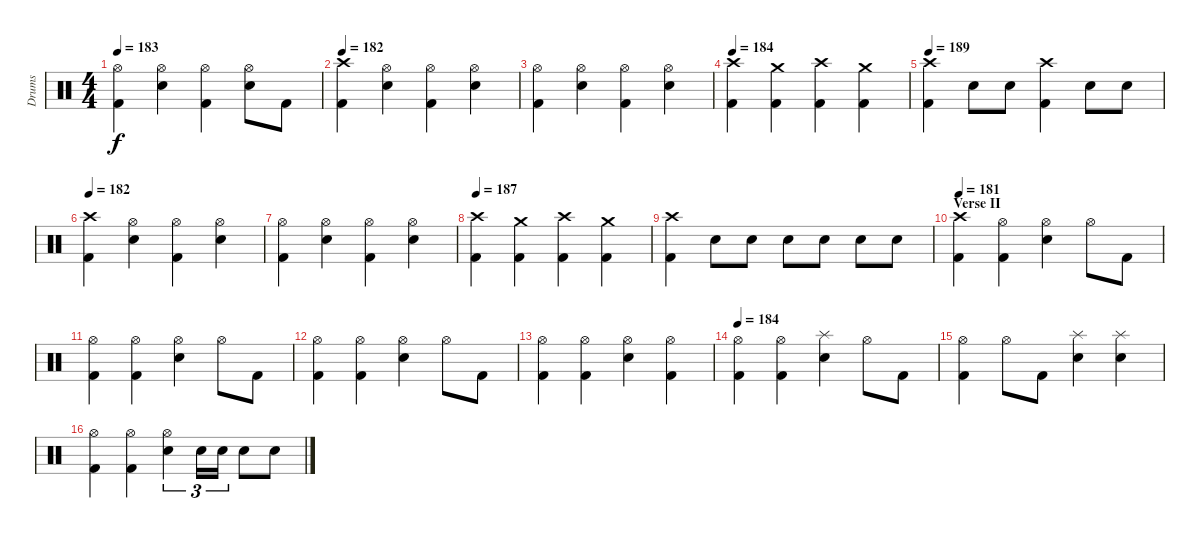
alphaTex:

\track ("Drums" "Drums") {instrument percussion}
\staff {score}
\articulation defaults
\ts (4 4)
\tempo 183
\clef neutral
\ks c
("Hi-Hat (open)" "Kick (hit) 2").4{dy f} ("Hi-Hat (open)" "Snare (hit) 2").4 ("Hi-Hat (open)" "Kick (hit) 2").4 ("Hi-Hat (open)" "Snare (hit) 2").8 "Kick (hit) 2".8 |
\tempo 182
("Crash high (hit)" "Kick (hit) 2").4 ("Hi-Hat (open)" "Snare (hit) 2").4 ("Hi-Hat (open)" "Kick (hit) 2").4 ("Hi-Hat (open)" "Snare (hit) 2").4 |
("Hi-Hat (open)" "Kick (hit) 2").4 ("Hi-Hat (open)" "Snare (hit) 2").4 ("Hi-Hat (open)" "Kick (hit) 2").4 ("Hi-Hat (open)" "Snare (hit) 2").4 |
\tempo 184
("Crash high (hit)" "Kick (hit) 2").4 ("Crash medium (hit)" "Kick (hit) 2").4 ("Crash high (hit)" "Kick (hit) 2").4 ("Crash medium (hit)" "Kick (hit) 2").4 |
\tempo 189
("Crash high (hit)" "Kick (hit) 2").4 "Snare (hit) 2".8 "Snare (hit) 2".8 ("Crash high (hit)" "Kick (hit) 2").4 "Snare (hit) 2".8 "Snare (hit) 2".8 |
\tempo 182
("Crash high (hit)" "Kick (hit) 2").4 ("Hi-Hat (open)" "Snare (hit) 2").4 ("Hi-Hat (open)" "Kick (hit) 2").4 ("Hi-Hat (open)" "Snare (hit) 2").4 |
("Hi-Hat (open)" "Kick (hit) 2").4 ("Hi-Hat (open)" "Snare (hit) 2").4 ("Hi-Hat (open)" "Kick (hit) 2").4 ("Hi-Hat (open)" "Snare (hit) 2").4 |
\tempo 187
("Crash high (hit)" "Kick (hit) 2").4 ("Crash medium (hit)" "Kick (hit) 2").4 ("Crash high (hit)" "Kick (hit) 2").4 ("Crash medium (hit)" "Kick (hit) 2").4 |
("Crash high (hit)" "Kick (hit) 2").4 "Snare (hit) 2".8 "Snare (hit) 2".8 "Snare (hit) 2".8 "Snare (hit) 2".8 "Snare (hit) 2".8 "Snare (hit) 2".8 |
\section ("" "Verse II")
\tempo 181
("Crash high (hit)" "Kick (hit) 2").4 ("Kick (hit) 2" "Hi-Hat (open)").4 ("Snare (hit) 2" "Hi-Hat (open)").4 "Hi-Hat (open)".8 "Kick (hit) 2".8 |
("Kick (hit) 2" "Hi-Hat (open)").4 ("Kick (hit) 2" "Hi-Hat (open)").4 ("Snare (hit) 2" "Hi-Hat (open)").4 "Hi-Hat (open)".8 "Kick (hit) 2".8 |
("Kick (hit) 2" "Hi-Hat (open)").4 ("Kick (hit) 2" "Hi-Hat (open)").4 ("Snare (hit) 2" "Hi-Hat (open)").4 "Hi-Hat (open)".8 "Kick (hit) 2".8 |
("Kick (hit) 2" "Hi-Hat (open)").4 ("Kick (hit) 2" "Hi-Hat (open)").4 ("Snare (hit) 2" "Hi-Hat (open)").4 ("Hi-Hat (open)" "Kick (hit) 2").4 |
\tempo 184
("Kick (hit) 2" "Hi-Hat (open)").4 ("Kick (hit) 2" "Hi-Hat (open)").4 ("Snare (hit) 2" "Splash (hit)").4 "Hi-Hat (open)".8 "Kick (hit) 2".8 |
("Kick (hit) 2" "Hi-Hat (open)").4 "Hi-Hat (open)".8 "Kick (hit) 2".8 ("Snare (hit) 2" "Splash (hit)").4 ("Snare (hit) 2" "Splash (hit)").4 |
("Kick (hit) 2" "Hi-Hat (open)").4 ("Kick (hit) 2" "Hi-Hat (open)").4 ("Snare (hit) 2" "Hi-Hat (open)").4{tu (3 2)} "Snare (hit) 2".16{tu (3 2)} "Snare (hit) 2".16{tu (3 2)} "Snare (hit) 2".8 "Snare (hit) 2".8
